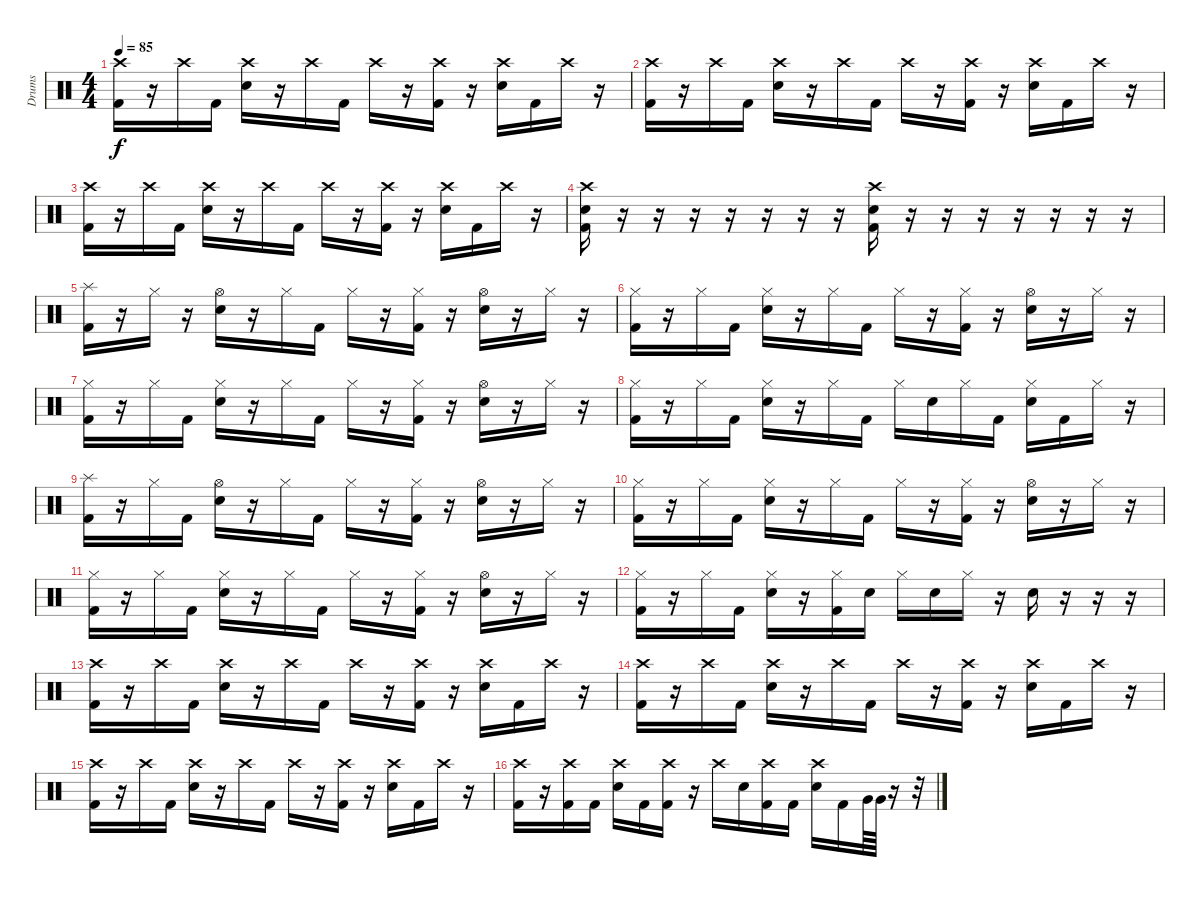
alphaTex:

\track ("Drums" "Drums") {instrument percussion}
\staff {score}
\articulation defaults
\ts (4 4)
\tempo 85
\clef neutral
\ks c
("Crash high (hit)" "Kick (hit) 2").16{dy f} r.16 "Crash high (hit)".16 "Kick (hit) 2".16 ("Crash high (hit)" "Electric Snare (hit)").16 r.16 "Crash high (hit)".16 "Kick (hit) 2".16 "Crash high (hit)".16 r.16 ("Crash high (hit)" "Kick (hit) 2").16 r.16 ("Crash high (hit)" "Electric Snare (hit)").16 "Kick (hit) 2".16 "Crash high (hit)".16 r.16 |
("Crash high (hit)" "Kick (hit) 2").16 r.16 "Crash high (hit)".16 "Kick (hit) 2".16 ("Crash high (hit)" "Electric Snare (hit)").16 r.16 "Crash high (hit)".16 "Kick (hit) 2".16 "Crash high (hit)".16 r.16 ("Crash high (hit)" "Kick (hit) 2").16 r.16 ("Crash high (hit)" "Electric Snare (hit)").16 "Kick (hit) 2".16 "Crash high (hit)".16 r.16 |
("Crash high (hit)" "Kick (hit) 2").16 r.16 "Crash high (hit)".16 "Kick (hit) 2".16 ("Crash high (hit)" "Electric Snare (hit)").16 r.16 "Crash high (hit)".16 "Kick (hit) 2".16 "Crash high (hit)".16 r.16 ("Crash high (hit)" "Kick (hit) 2").16 r.16 ("Crash high (hit)" "Electric Snare (hit)").16 "Kick (hit) 2".16 "Crash high (hit)".16 r.16 |
("Crash high (hit)" "Electric Snare (hit)" "Kick (hit) 2").16 r.16 r.16 r.16 r.16 r.16 r.16 r.16 ("Crash high (hit)" "Electric Snare (hit)" "Kick (hit) 2").16 r.16 r.16 r.16 r.16 r.16 r.16 r.16 |
("Splash (hit)" "Kick (hit) 2").16 r.16 "Hi-Hat (closed)".16 r.16 ("Hi-Hat (open)" "Electric Snare (hit)").16 r.16 "Hi-Hat (closed)".16 "Kick (hit) 2".16 "Hi-Hat (closed)".16 r.16 ("Hi-Hat (closed)" "Kick (hit) 2").16 r.16 ("Hi-Hat (open)" "Electric Snare (hit)").16 r.16 "Hi-Hat (closed)".16 r.16 |
("Hi-Hat (closed)" "Kick (hit) 2").16 r.16 "Hi-Hat (closed)".16 "Kick (hit) 2".16 ("Hi-Hat (closed)" "Electric Snare (hit)").16 r.16 "Hi-Hat (closed)".16 "Kick (hit) 2".16 "Hi-Hat (closed)".16 r.16 ("Hi-Hat (closed)" "Kick (hit) 2").16 r.16 ("Hi-Hat (open)" "Electric Snare (hit)").16 r.16 "Hi-Hat (closed)".16 r.16 |
("Hi-Hat (closed)" "Kick (hit) 2").16 r.16 "Hi-Hat (closed)".16 "Kick (hit) 2".16 ("Hi-Hat (closed)" "Electric Snare (hit)").16 r.16 "Hi-Hat (closed)".16 "Kick (hit) 2".16 "Hi-Hat (closed)".16 r.16 ("Hi-Hat (closed)" "Kick (hit) 2").16 r.16 ("Hi-Hat (open)" "Electric Snare (hit)").16 r.16 "Hi-Hat (closed)".16 r.16 |
("Hi-Hat (closed)" "Kick (hit) 2").16 r.16 "Hi-Hat (closed)".16 "Kick (hit) 2".16 ("Hi-Hat (closed)" "Electric Snare (hit)").16 r.16 "Hi-Hat (closed)".16 "Kick (hit) 2".16 "Hi-Hat (closed)".16 "Electric Snare (hit)".16 "Hi-Hat (closed)".16 "Kick (hit) 2".16 ("Hi-Hat (closed)" "Electric Snare (hit)").16 "Kick (hit) 2".16 "Hi-Hat (closed)".16 r.16 |
("Splash (hit)" "Kick (hit) 2").16 r.16 "Hi-Hat (closed)".16 "Kick (hit) 2".16 ("Hi-Hat (open)" "Electric Snare (hit)").16 r.16 "Hi-Hat (closed)".16 "Kick (hit) 2".16 "Hi-Hat (closed)".16 r.16 ("Hi-Hat (closed)" "Kick (hit) 2").16 r.16 ("Hi-Hat (open)" "Electric Snare (hit)").16 r.16 "Hi-Hat (closed)".16 r.16 |
("Hi-Hat (closed)" "Kick (hit) 2").16 r.16 "Hi-Hat (closed)".16 "Kick (hit) 2".16 ("Hi-Hat (closed)" "Electric Snare (hit)").16 r.16 "Hi-Hat (closed)".16 "Kick (hit) 2".16 "Hi-Hat (closed)".16 r.16 ("Hi-Hat (closed)" "Kick (hit) 2").16 r.16 ("Hi-Hat (open)" "Electric Snare (hit)").16 r.16 "Hi-Hat (closed)".16 r.16 |
("Hi-Hat (closed)" "Kick (hit) 2").16 r.16 "Hi-Hat (closed)".16 "Kick (hit) 2".16 ("Hi-Hat (closed)" "Electric Snare (hit)").16 r.16 "Hi-Hat (closed)".16 "Kick (hit) 2".16 "Hi-Hat (closed)".16 r.16 ("Hi-Hat (closed)" "Kick (hit) 2").16 r.16 ("Hi-Hat (open)" "Electric Snare (hit)").16 r.16 "Hi-Hat (closed)".16 r.16 |
("Hi-Hat (closed)" "Kick (hit) 2").16 r.16 "Hi-Hat (closed)".16 "Kick (hit) 2".16 ("Hi-Hat (closed)" "Electric Snare (hit)").16 r.16 ("Hi-Hat (closed)" "Kick (hit) 2").16 "Electric Snare (hit)".16 "Hi-Hat (closed)".16 "Electric Snare (hit)".16 "Hi-Hat (closed)".16 r.16 "Electric Snare (hit)".16 r.16 r.16 r.16 |
("Crash high (hit)" "Kick (hit) 2").16 r.16 "Crash high (hit)".16 "Kick (hit) 2".16 ("Crash high (hit)" "Electric Snare (hit)").16 r.16 "Crash high (hit)".16 "Kick (hit) 2".16 "Crash high (hit)".16 r.16 ("Crash high (hit)" "Kick (hit) 2").16 r.16 ("Crash high (hit)" "Electric Snare (hit)").16 "Kick (hit) 2".16 "Crash high (hit)".16 r.16 |
("Crash high (hit)" "Kick (hit) 2").16 r.16 "Crash high (hit)".16 "Kick (hit) 2".16 ("Crash high (hit)" "Electric Snare (hit)").16 r.16 "Crash high (hit)".16 "Kick (hit) 2".16 "Crash high (hit)".16 r.16 ("Crash high (hit)" "Kick (hit) 2").16 r.16 ("Crash high (hit)" "Electric Snare (hit)").16 "Kick (hit) 2".16 "Crash high (hit)".16 r.16 |
("Crash high (hit)" "Kick (hit) 2").16 r.16 "Crash high (hit)".16 "Kick (hit) 2".16 ("Crash high (hit)" "Electric Snare (hit)").16 r.16 "Crash high (hit)".16 "Kick (hit) 2".16 "Crash high (hit)".16 r.16 ("Crash high (hit)" "Kick (hit) 2").16 r.16 ("Crash high (hit)" "Electric Snare (hit)").16 "Kick (hit) 2".16 "Crash high (hit)".16 r.16 |
("Crash high (hit)" "Kick (hit) 2").16 r.16 ("Crash high (hit)" "Kick (hit) 2").16 "Kick (hit) 2".16 ("Crash high (hit)" "Electric Snare (hit)").16 "Kick (hit) 2".16 ("Crash high (hit)" "Kick (hit) 2").16 r.16 "Crash high (hit)".16 "Electric Snare (hit)".16 ("Crash high (hit)" "Kick (hit) 2").16 "Kick (hit) 2".16 ("Crash high (hit)" "Electric Snare (hit)").16 "Kick (hit) 2".16 "Very Low Tom (hit)".64 "Very Low Tom (hit)".64 r.16 r.32
